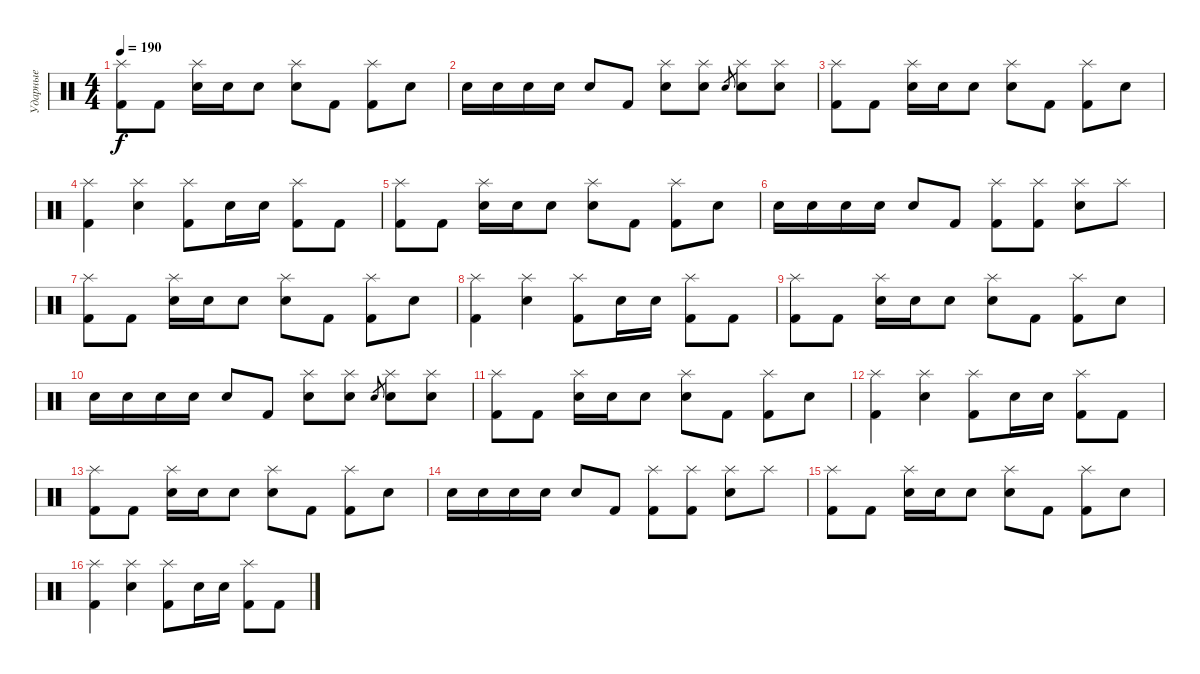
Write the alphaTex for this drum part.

\track ("Ударные" "Ударные") {instrument percussion}
\staff {score}
\articulation defaults
\ts (4 4)
\tempo 190
\clef neutral
\ks c
("Splash (hit)" "Kick (hit) 2").8{dy f} "Kick (hit) 2".8 ("Splash (hit)" "Electric Snare (hit)").16 "Electric Snare (hit)".16 "Electric Snare (hit)".8 ("Splash (hit)" "Electric Snare (hit)").8 "Kick (hit) 2".8 ("Splash (hit)" "Kick (hit) 2").8 "Electric Snare (hit)".8 |
"Electric Snare (hit)".16 "Electric Snare (hit)".16 "Electric Snare (hit)".16 "Electric Snare (hit)".16 "Electric Snare (hit)".8 "Kick (hit) 2".8 ("Splash (hit)" "Electric Snare (hit)").8 ("Splash (hit)" "Electric Snare (hit)").8 "Electric Snare (hit)".8{gr} ("Splash (hit)" "Electric Snare (hit)").8 ("Splash (hit)" "Electric Snare (hit)").8 |
("Splash (hit)" "Kick (hit) 2").8 "Kick (hit) 2".8 ("Splash (hit)" "Electric Snare (hit)").16 "Electric Snare (hit)".16 "Electric Snare (hit)".8 ("Splash (hit)" "Electric Snare (hit)").8 "Kick (hit) 2".8 ("Splash (hit)" "Kick (hit) 2").8 "Electric Snare (hit)".8 |
("Splash (hit)" "Kick (hit) 2").4 ("Splash (hit)" "Electric Snare (hit)").4 ("Splash (hit)" "Kick (hit) 2").8 "Electric Snare (hit)".16 "Electric Snare (hit)".16 ("Splash (hit)" "Kick (hit) 2").8 "Kick (hit) 2".8 |
("Splash (hit)" "Kick (hit) 2").8 "Kick (hit) 2".8 ("Splash (hit)" "Electric Snare (hit)").16 "Electric Snare (hit)".16 "Electric Snare (hit)".8 ("Splash (hit)" "Electric Snare (hit)").8 "Kick (hit) 2".8 ("Splash (hit)" "Kick (hit) 2").8 "Electric Snare (hit)".8 |
"Electric Snare (hit)".16 "Electric Snare (hit)".16 "Electric Snare (hit)".16 "Electric Snare (hit)".16 "Electric Snare (hit)".8 "Kick (hit) 2".8 ("Splash (hit)" "Kick (hit) 2").8 ("Splash (hit)" "Kick (hit) 2").8 ("Splash (hit)" "Electric Snare (hit)").8 "Splash (hit)".8 |
("Splash (hit)" "Kick (hit) 2").8 "Kick (hit) 2".8 ("Splash (hit)" "Electric Snare (hit)").16 "Electric Snare (hit)".16 "Electric Snare (hit)".8 ("Splash (hit)" "Electric Snare (hit)").8 "Kick (hit) 2".8 ("Splash (hit)" "Kick (hit) 2").8 "Electric Snare (hit)".8 |
("Splash (hit)" "Kick (hit) 2").4 ("Splash (hit)" "Electric Snare (hit)").4 ("Splash (hit)" "Kick (hit) 2").8 "Electric Snare (hit)".16 "Electric Snare (hit)".16 ("Splash (hit)" "Kick (hit) 2").8 "Kick (hit) 2".8 |
("Splash (hit)" "Kick (hit) 2").8 "Kick (hit) 2".8 ("Splash (hit)" "Electric Snare (hit)").16 "Electric Snare (hit)".16 "Electric Snare (hit)".8 ("Splash (hit)" "Electric Snare (hit)").8 "Kick (hit) 2".8 ("Splash (hit)" "Kick (hit) 2").8 "Electric Snare (hit)".8 |
"Electric Snare (hit)".16 "Electric Snare (hit)".16 "Electric Snare (hit)".16 "Electric Snare (hit)".16 "Electric Snare (hit)".8 "Kick (hit) 2".8 ("Splash (hit)" "Electric Snare (hit)").8 ("Splash (hit)" "Electric Snare (hit)").8 "Electric Snare (hit)".8{gr} ("Splash (hit)" "Electric Snare (hit)").8 ("Splash (hit)" "Electric Snare (hit)").8 |
("Splash (hit)" "Kick (hit) 2").8 "Kick (hit) 2".8 ("Splash (hit)" "Electric Snare (hit)").16 "Electric Snare (hit)".16 "Electric Snare (hit)".8 ("Splash (hit)" "Electric Snare (hit)").8 "Kick (hit) 2".8 ("Splash (hit)" "Kick (hit) 2").8 "Electric Snare (hit)".8 |
("Splash (hit)" "Kick (hit) 2").4 ("Splash (hit)" "Electric Snare (hit)").4 ("Splash (hit)" "Kick (hit) 2").8 "Electric Snare (hit)".16 "Electric Snare (hit)".16 ("Splash (hit)" "Kick (hit) 2").8 "Kick (hit) 2".8 |
("Splash (hit)" "Kick (hit) 2").8 "Kick (hit) 2".8 ("Splash (hit)" "Electric Snare (hit)").16 "Electric Snare (hit)".16 "Electric Snare (hit)".8 ("Splash (hit)" "Electric Snare (hit)").8 "Kick (hit) 2".8 ("Splash (hit)" "Kick (hit) 2").8 "Electric Snare (hit)".8 |
"Electric Snare (hit)".16 "Electric Snare (hit)".16 "Electric Snare (hit)".16 "Electric Snare (hit)".16 "Electric Snare (hit)".8 "Kick (hit) 2".8 ("Splash (hit)" "Kick (hit) 2").8 ("Splash (hit)" "Kick (hit) 2").8 ("Splash (hit)" "Electric Snare (hit)").8 "Splash (hit)".8 |
("Splash (hit)" "Kick (hit) 2").8 "Kick (hit) 2".8 ("Splash (hit)" "Electric Snare (hit)").16 "Electric Snare (hit)".16 "Electric Snare (hit)".8 ("Splash (hit)" "Electric Snare (hit)").8 "Kick (hit) 2".8 ("Splash (hit)" "Kick (hit) 2").8 "Electric Snare (hit)".8 |
("Splash (hit)" "Kick (hit) 2").4 ("Splash (hit)" "Electric Snare (hit)").4 ("Splash (hit)" "Kick (hit) 2").8 "Electric Snare (hit)".16 "Electric Snare (hit)".16 ("Splash (hit)" "Kick (hit) 2").8 "Kick (hit) 2".8
